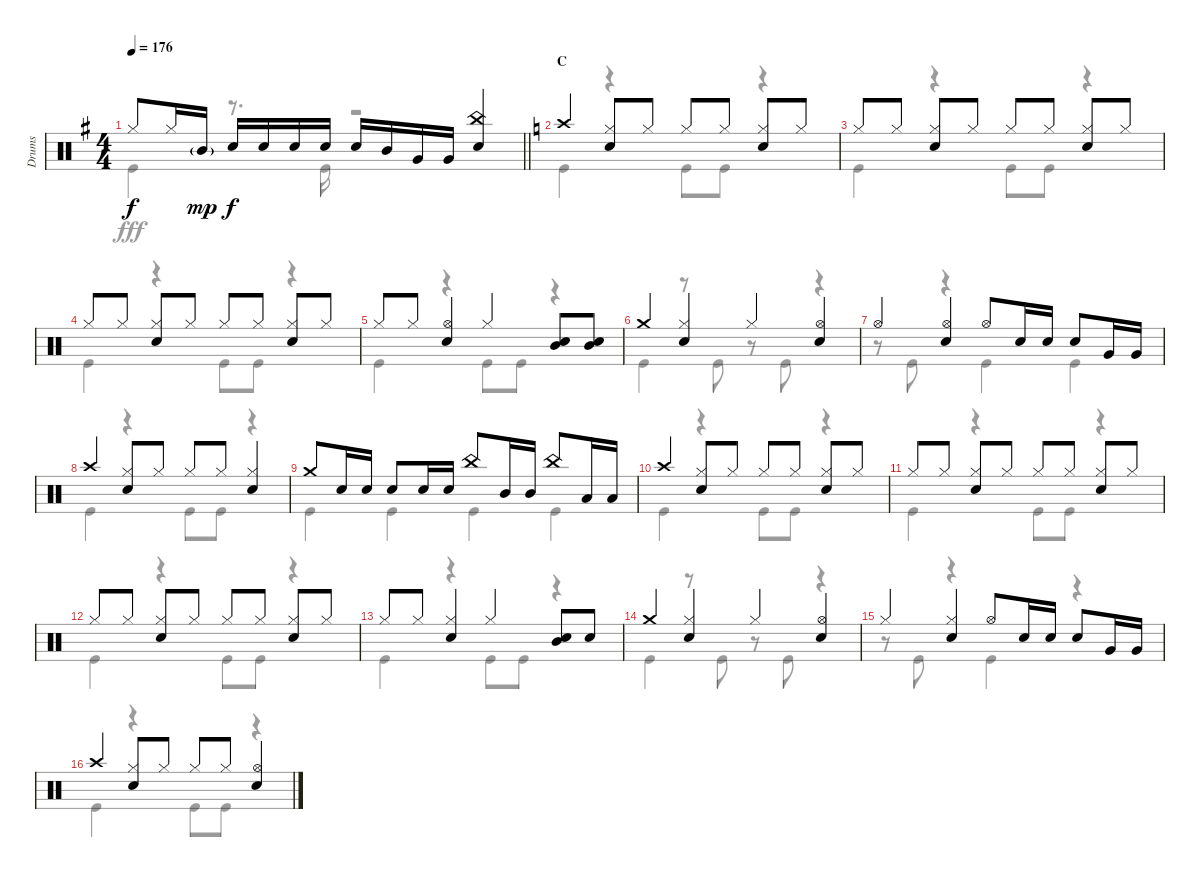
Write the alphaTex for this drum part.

\track ("Drums" "Drums") {instrument percussion}
\staff {score}
\articulation defaults
\voice
\ts (4 4)
\tempo 176
\clef neutral
\barLineRight lightlight
\ks g "Hi-Hat (closed)".8{dy f} "Hi-Hat (closed)".16 "Mid Tom (hit)"{g}.16{dy mp} "Snare (hit) 2".16{dy f} "Snare (hit) 2".16 "Snare (hit) 2".16 "Snare (hit) 2".16 "Snare (hit) 2".16 "Mid Tom (hit)".16 "Very Low Tom (hit)".16 "Very Low Tom (hit)".16
("China (hit)" "Snare (hit) 2").4 |
\section ("" "C")
\ks c "Crash high (hit)".4
("Hi-Hat (closed)" "Snare (hit) 2").8 "Hi-Hat (closed)".8 "Hi-Hat (closed)".8 "Hi-Hat (closed)".8 ("Hi-Hat (closed)" "Snare (hit) 2").8 "Hi-Hat (closed)".8 |
"Hi-Hat (closed)".8 "Hi-Hat (closed)".8 ("Hi-Hat (closed)" "Snare (hit) 2").8 "Hi-Hat (closed)".8 "Hi-Hat (closed)".8 "Hi-Hat (closed)".8 ("Hi-Hat (closed)" "Snare (hit) 2").8 "Hi-Hat (closed)".8 |
"Hi-Hat (closed)".8 "Hi-Hat (closed)".8 ("Hi-Hat (closed)" "Snare (hit) 2").8 "Hi-Hat (closed)".8 "Hi-Hat (closed)".8 "Hi-Hat (closed)".8 ("Hi-Hat (closed)" "Snare (hit) 2").8 "Hi-Hat (closed)".8 |
"Hi-Hat (closed)".8 "Hi-Hat (closed)".8 ("Hi-Hat (open)" "Snare (hit) 2").4 "Hi-Hat (closed)".4 ("Mid Tom (hit)" "Snare (hit) 2").8 ("Mid Tom (hit)" "Snare (hit) 2").8 |
"Crash medium (hit)".4 ("Hi-Hat (closed)" "Snare (hit) 2").4 "Hi-Hat (closed)".4 ("Hi-Hat (open)" "Snare (hit) 2").4 |
"Hi-Hat (open)".4 ("Hi-Hat (open)" "Snare (hit) 2").4 "Hi-Hat (open)".8 "Snare (hit) 2".16 "Snare (hit) 2".16 "Snare (hit) 2".8 "Very Low Tom (hit)".16 "Very Low Tom (hit)".16 |
"Crash high (hit)".4 ("Hi-Hat (closed)" "Snare (hit) 2").8 "Hi-Hat (closed)".8 "Hi-Hat (closed)".8 "Hi-Hat (closed)".8 ("Hi-Hat (closed)" "Snare (hit) 2").4 |
"Crash medium (hit)".8 "Snare (hit) 2".16 "Snare (hit) 2".16 "Snare (hit) 2".8 "Snare (hit) 2".16 "Snare (hit) 2".16 "China (hit)".8 "Mid Tom (hit)".16 "Mid Tom (hit)".16 "China (hit)".8 "Low Tom (hit)".16 "Low Tom (hit)".16 |
"Crash high (hit)".4 ("Hi-Hat (closed)" "Snare (hit) 2").8 "Hi-Hat (closed)".8 "Hi-Hat (closed)".8 "Hi-Hat (closed)".8 ("Hi-Hat (closed)" "Snare (hit) 2").8 "Hi-Hat (closed)".8 |
"Hi-Hat (closed)".8 "Hi-Hat (closed)".8 ("Hi-Hat (closed)" "Snare (hit) 2").8 "Hi-Hat (closed)".8 "Hi-Hat (closed)".8 "Hi-Hat (closed)".8 ("Hi-Hat (closed)" "Snare (hit) 2").8 "Hi-Hat (closed)".8 |
"Hi-Hat (closed)".8 "Hi-Hat (closed)".8 ("Hi-Hat (closed)" "Snare (hit) 2").8 "Hi-Hat (closed)".8 "Hi-Hat (closed)".8 "Hi-Hat (closed)".8 ("Hi-Hat (closed)" "Snare (hit) 2").8 "Hi-Hat (closed)".8 |
"Hi-Hat (closed)".8 "Hi-Hat (closed)".8 ("Hi-Hat (closed)" "Snare (hit) 2").4 "Hi-Hat (closed)".4 ("Mid Tom (hit)" "Snare (hit) 2").8 "Snare (hit) 2".8 |
"Crash medium (hit)".4 ("Hi-Hat (closed)" "Snare (hit) 2").4 "Hi-Hat (closed)".4 ("Hi-Hat (open)" "Snare (hit) 2").4 |
"Hi-Hat (closed)".4 ("Hi-Hat (closed)" "Snare (hit) 2").4 "Hi-Hat (open)".8 "Snare (hit) 2".16 "Snare (hit) 2".16 "Snare (hit) 2".8 "Very Low Tom (hit)".16 "Very Low Tom (hit)".16 |
"Crash high (hit)".4 ("Hi-Hat (closed)" "Snare (hit) 2").8 "Hi-Hat (closed)".8 "Hi-Hat (closed)".8 "Hi-Hat (closed)".8 ("Hi-Hat (open)" "Snare (hit) 2").4
\voice
\clef neutral
\ottava regular
\simile none
\barLineRight lightlight
\ks g "Kick (hit)".4{dy fff}
r.8{d} "Kick (hit)".16 r.2 |
\ks c "Kick (hit)".4
r.4 "Kick (hit)".8 "Kick (hit)".8 r.4 |
"Kick (hit)".4 r.4 "Kick (hit)".8 "Kick (hit)".8 r.4 |
"Kick (hit)".4 r.4 "Kick (hit)".8 "Kick (hit)".8 r.4 |
"Kick (hit)".4 r.4 "Kick (hit)".8 "Kick (hit)".8 r.4 |
"Kick (hit)".4 r.8 "Kick (hit)".8 r.8 "Kick (hit)".8 r.4 |
r.8 "Kick (hit)".8 r.4 "Kick (hit)".4 "Kick (hit)".4 |
"Kick (hit)".4 r.4 "Kick (hit)".8 "Kick (hit)".8 r.4 |
"Kick (hit)".4 "Kick (hit)".4 "Kick (hit)".4 "Kick (hit)".4 |
"Kick (hit)".4 r.4 "Kick (hit)".8 "Kick (hit)".8 r.4 |
"Kick (hit)".4 r.4 "Kick (hit)".8 "Kick (hit)".8 r.4 |
"Kick (hit)".4 r.4 "Kick (hit)".8 "Kick (hit)".8 r.4 |
"Kick (hit)".4 r.4 "Kick (hit)".8 "Kick (hit)".8 r.4 |
"Kick (hit)".4 r.8 "Kick (hit)".8 r.8 "Kick (hit)".8 r.4 |
r.8 "Kick (hit)".8 r.4 "Kick (hit)".4 r.4 |
"Kick (hit)".4 r.4 "Kick (hit)".8 "Kick (hit)".8 r.4
